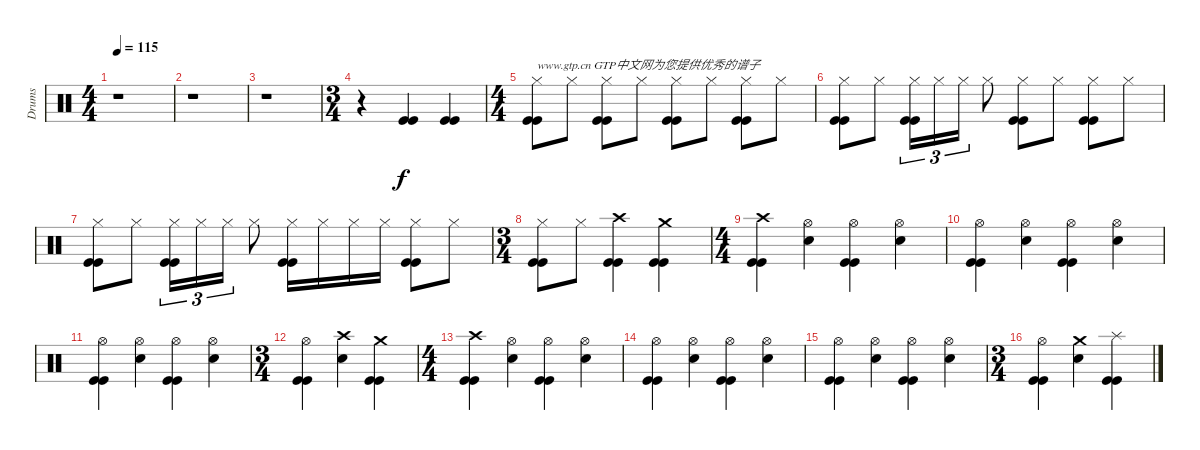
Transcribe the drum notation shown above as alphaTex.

\track ("Drums" "Drums") {instrument percussion}
\staff {score}
\articulation defaults
\ts (4 4)
\tempo 115
\tempo 140
\tempo 115
\clef neutral
\ks c
r.1{dy f} |
r.1 |
r.1 |
\ts (3 4)
r.4 ("Kick (hit)" "Kick (hit)").4 ("Kick (hit)" "Kick (hit)").4 |
\ts (4 4)
("Kick (hit)" "Kick (hit)" "Hi-Hat (closed)").8{txt "www.gtp.cn GTP中文网为您提供优秀的谱子"} "Hi-Hat (closed)".8 ("Kick (hit)" "Kick (hit)" "Hi-Hat (closed)").8 "Hi-Hat (closed)".8 ("Kick (hit)" "Kick (hit)" "Hi-Hat (closed)").8 "Hi-Hat (closed)".8 ("Kick (hit)" "Kick (hit)" "Hi-Hat (closed)").8 "Hi-Hat (closed)".8 |
("Kick (hit)" "Kick (hit)" "Hi-Hat (closed)").8 "Hi-Hat (closed)".8 ("Kick (hit)" "Kick (hit)" "Hi-Hat (closed)").16{tu (3 2)} "Hi-Hat (closed)".16{tu (3 2)} "Hi-Hat (closed)".16{tu (3 2)} "Hi-Hat (closed)".8 ("Kick (hit)" "Kick (hit)" "Hi-Hat (closed)").8 "Hi-Hat (closed)".8 ("Kick (hit)" "Kick (hit)" "Hi-Hat (closed)").8 "Hi-Hat (closed)".8 |
("Kick (hit)" "Kick (hit)" "Hi-Hat (closed)").8 "Hi-Hat (closed)".8 ("Kick (hit)" "Kick (hit)" "Hi-Hat (closed)").16{tu (3 2)} "Hi-Hat (closed)".16{tu (3 2)} "Hi-Hat (closed)".16{tu (3 2)} "Hi-Hat (closed)".8 ("Kick (hit)" "Kick (hit)" "Hi-Hat (closed)").16 "Hi-Hat (closed)".16 "Hi-Hat (closed)".16 "Hi-Hat (closed)".16 ("Kick (hit)" "Kick (hit)" "Hi-Hat (closed)").8 "Hi-Hat (closed)".8 |
\ts (3 4)
("Kick (hit)" "Kick (hit)" "Hi-Hat (closed)").8 "Hi-Hat (closed)".8 ("Kick (hit)" "Kick (hit)" "Crash high (hit)").4 ("Kick (hit)" "Kick (hit)" "Crash medium (hit)").4 |
\ts (4 4)
("Kick (hit)" "Kick (hit)" "Crash high (hit)").4 ("Snare (hit) 2" "Hi-Hat (open)").4 ("Kick (hit)" "Kick (hit)" "Hi-Hat (open)").4 ("Snare (hit) 2" "Hi-Hat (open)").4 |
("Kick (hit)" "Kick (hit)" "Hi-Hat (open)").4 ("Snare (hit) 2" "Hi-Hat (open)").4 ("Kick (hit)" "Kick (hit)" "Hi-Hat (open)").4 ("Snare (hit) 2" "Hi-Hat (open)").4 |
("Kick (hit)" "Kick (hit)" "Hi-Hat (open)").4 ("Snare (hit) 2" "Hi-Hat (open)").4 ("Kick (hit)" "Kick (hit)" "Hi-Hat (open)").4 ("Snare (hit) 2" "Hi-Hat (open)").4 |
\ts (3 4)
("Kick (hit)" "Kick (hit)" "Hi-Hat (open)").4 ("Snare (hit) 2" "Crash high (hit)").4 ("Kick (hit)" "Kick (hit)" "Crash medium (hit)").4 |
\ts (4 4)
("Kick (hit)" "Kick (hit)" "Crash high (hit)").4 ("Snare (hit) 2" "Hi-Hat (open)").4 ("Kick (hit)" "Kick (hit)" "Hi-Hat (open)").4 ("Snare (hit) 2" "Hi-Hat (open)").4 |
("Kick (hit)" "Kick (hit)" "Hi-Hat (open)").4 ("Snare (hit) 2" "Hi-Hat (open)").4 ("Kick (hit)" "Kick (hit)" "Hi-Hat (open)").4 ("Snare (hit) 2" "Hi-Hat (open)").4 |
("Kick (hit)" "Kick (hit)" "Hi-Hat (open)").4 ("Snare (hit) 2" "Hi-Hat (open)").4 ("Kick (hit)" "Kick (hit)" "Hi-Hat (open)").4 ("Snare (hit) 2" "Hi-Hat (open)").4 |
\ts (3 4)
("Kick (hit)" "Kick (hit)" "Hi-Hat (open)").4 ("Snare (hit) 2" "Crash medium (hit)").4 ("Kick (hit)" "Kick (hit)" "Splash (hit)").4
